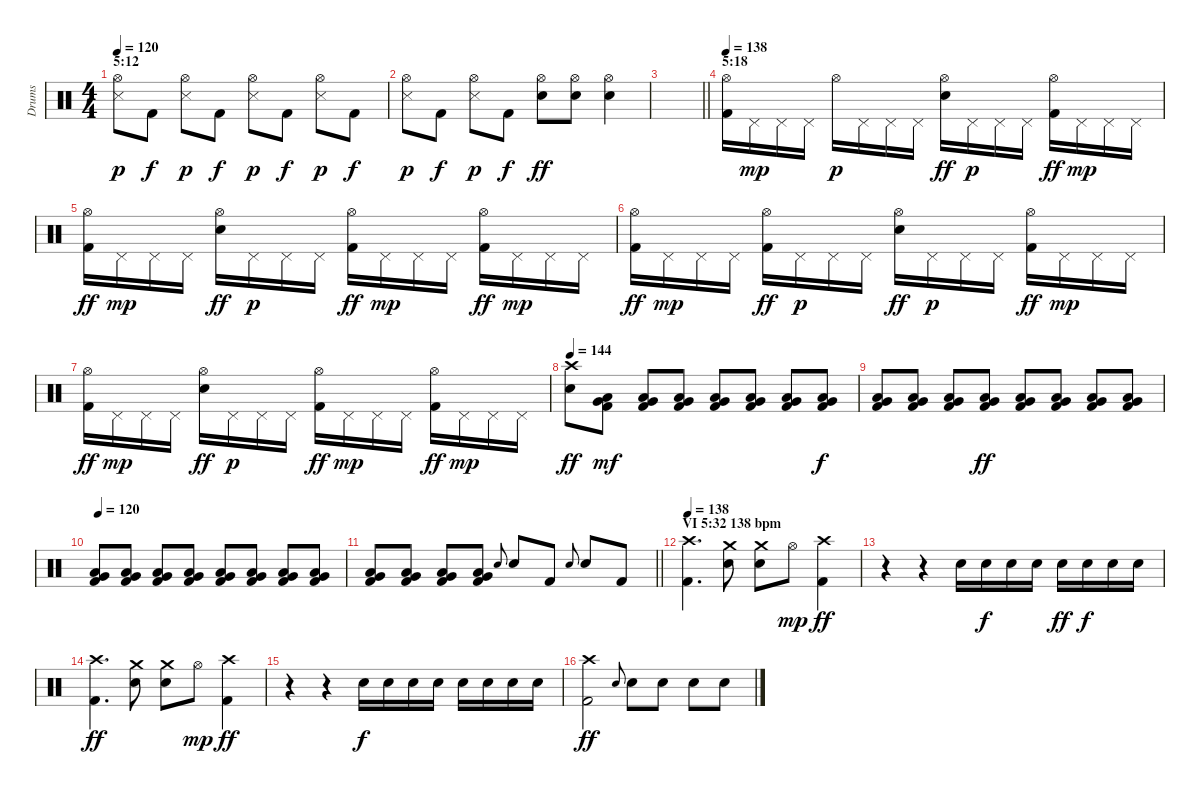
\track ("Drums" "Drums") {instrument percussion}
\staff {score}
\articulation defaults
\ts (4 4)
\section ("" "5:12")
\tempo 120
\clef neutral
\ks c
("Hi-Hat (open)" "Snare (side stick) 3").8{dy p} "Kick (hit) 2".8{dy f} ("Hi-Hat (open)" "Snare (side stick) 3").8{dy p} "Kick (hit) 2".8{dy f} ("Hi-Hat (open)" "Snare (side stick) 3").8{dy p} "Kick (hit) 2".8{dy f} ("Hi-Hat (open)" "Snare (side stick) 3").8{dy p} "Kick (hit) 2".8{dy f} |
("Hi-Hat (open)" "Snare (side stick) 3").8{dy p} "Kick (hit) 2".8{dy f} ("Hi-Hat (open)" "Snare (side stick) 3").8{dy p} "Kick (hit) 2".8{dy f} ("Hi-Hat (open)" "Electric Snare (hit)").8{dy ff} ("Hi-Hat (open)" "Electric Snare (hit)").8 ("Hi-Hat (open)" "Electric Snare (hit)").4 |
\barLineRight lightlight
|
\section ("" "5:18")
\tempo 138
("Hi-Hat (open)" "Kick (hit) 2").16 "Pedal Hi-Hat (hit)".16{dy mp} "Pedal Hi-Hat (hit)".16 "Pedal Hi-Hat (hit)".16 "Hi-Hat (open)".16{dy p} "Pedal Hi-Hat (hit)".16 "Pedal Hi-Hat (hit)".16 "Pedal Hi-Hat (hit)".16 ("Hi-Hat (open)" "Electric Snare (hit)").16{dy ff} "Pedal Hi-Hat (hit)".16{dy p} "Pedal Hi-Hat (hit)".16 "Pedal Hi-Hat (hit)".16 ("Hi-Hat (open)" "Kick (hit) 2").16{dy ff} "Pedal Hi-Hat (hit)".16{dy mp} "Pedal Hi-Hat (hit)".16 "Pedal Hi-Hat (hit)".16 |
("Hi-Hat (open)" "Kick (hit) 2").16{dy ff} "Pedal Hi-Hat (hit)".16{dy mp} "Pedal Hi-Hat (hit)".16 "Pedal Hi-Hat (hit)".16 ("Hi-Hat (open)" "Electric Snare (hit)").16{dy ff} "Pedal Hi-Hat (hit)".16{dy p} "Pedal Hi-Hat (hit)".16 "Pedal Hi-Hat (hit)".16 ("Hi-Hat (open)" "Kick (hit) 2").16{dy ff} "Pedal Hi-Hat (hit)".16{dy mp} "Pedal Hi-Hat (hit)".16 "Pedal Hi-Hat (hit)".16 ("Hi-Hat (open)" "Kick (hit) 2").16{dy ff} "Pedal Hi-Hat (hit)".16{dy mp} "Pedal Hi-Hat (hit)".16 "Pedal Hi-Hat (hit)".16 |
("Hi-Hat (open)" "Kick (hit) 2").16{dy ff} "Pedal Hi-Hat (hit)".16{dy mp} "Pedal Hi-Hat (hit)".16 "Pedal Hi-Hat (hit)".16 ("Hi-Hat (open)" "Kick (hit) 2").16{dy ff} "Pedal Hi-Hat (hit)".16{dy p} "Pedal Hi-Hat (hit)".16 "Pedal Hi-Hat (hit)".16 ("Hi-Hat (open)" "Electric Snare (hit)").16{dy ff} "Pedal Hi-Hat (hit)".16{dy p} "Pedal Hi-Hat (hit)".16 "Pedal Hi-Hat (hit)".16 ("Hi-Hat (open)" "Kick (hit) 2").16{dy ff} "Pedal Hi-Hat (hit)".16{dy mp} "Pedal Hi-Hat (hit)".16 "Pedal Hi-Hat (hit)".16 |
("Hi-Hat (open)" "Kick (hit) 2").16{dy ff} "Pedal Hi-Hat (hit)".16{dy mp} "Pedal Hi-Hat (hit)".16 "Pedal Hi-Hat (hit)".16 ("Hi-Hat (open)" "Electric Snare (hit)").16{dy ff} "Pedal Hi-Hat (hit)".16{dy p} "Pedal Hi-Hat (hit)".16 "Pedal Hi-Hat (hit)".16 ("Hi-Hat (open)" "Kick (hit) 2").16{dy ff} "Pedal Hi-Hat (hit)".16{dy mp} "Pedal Hi-Hat (hit)".16 "Pedal Hi-Hat (hit)".16 ("Hi-Hat (open)" "Kick (hit) 2").16{dy ff} "Pedal Hi-Hat (hit)".16{dy mp} "Pedal Hi-Hat (hit)".16 "Pedal Hi-Hat (hit)".16 |
\tempo 144
("Crash high (hit)" "Electric Snare (hit)").8{dy ff} ("Low Floor Tom (hit)" "Very Low Tom (hit)" "Kick (hit) 2").8{dy mf} ("Low Floor Tom (hit)" "Very Low Tom (hit)" "Kick (hit) 2").8 ("Low Floor Tom (hit)" "Very Low Tom (hit)" "Kick (hit) 2").8 ("Low Floor Tom (hit)" "Very Low Tom (hit)" "Kick (hit) 2").8 ("Low Floor Tom (hit)" "Very Low Tom (hit)" "Kick (hit) 2").8 ("Low Floor Tom (hit)" "Very Low Tom (hit)" "Kick (hit) 2").8 ("Low Floor Tom (hit)" "Very Low Tom (hit)" "Kick (hit) 2").8{dy f} |
("Low Floor Tom (hit)" "Very Low Tom (hit)" "Kick (hit) 2").8 ("Low Floor Tom (hit)" "Very Low Tom (hit)" "Kick (hit) 2").8 ("Low Floor Tom (hit)" "Very Low Tom (hit)" "Kick (hit) 2").8 ("Low Floor Tom (hit)" "Very Low Tom (hit)" "Kick (hit) 2").8{dy ff} ("Low Floor Tom (hit)" "Very Low Tom (hit)" "Kick (hit) 2").8 ("Low Floor Tom (hit)" "Very Low Tom (hit)" "Kick (hit) 2").8 ("Low Floor Tom (hit)" "Very Low Tom (hit)" "Kick (hit) 2").8 ("Low Floor Tom (hit)" "Very Low Tom (hit)" "Kick (hit) 2").8 |
\tempo 120
("Low Floor Tom (hit)" "Very Low Tom (hit)" "Kick (hit) 2").8 ("Low Floor Tom (hit)" "Very Low Tom (hit)" "Kick (hit) 2").8 ("Low Floor Tom (hit)" "Very Low Tom (hit)" "Kick (hit) 2").8 ("Low Floor Tom (hit)" "Very Low Tom (hit)" "Kick (hit) 2").8 ("Low Floor Tom (hit)" "Very Low Tom (hit)" "Kick (hit) 2").8 ("Low Floor Tom (hit)" "Very Low Tom (hit)" "Kick (hit) 2").8 ("Low Floor Tom (hit)" "Very Low Tom (hit)" "Kick (hit) 2").8 ("Low Floor Tom (hit)" "Very Low Tom (hit)" "Kick (hit) 2").8 |
\barLineRight lightlight
("Low Floor Tom (hit)" "Very Low Tom (hit)" "Kick (hit) 2").8 ("Low Floor Tom (hit)" "Very Low Tom (hit)" "Kick (hit) 2").8 ("Low Floor Tom (hit)" "Very Low Tom (hit)" "Kick (hit) 2").8 ("Low Floor Tom (hit)" "Very Low Tom (hit)" "Kick (hit) 2").8 "Electric Snare (hit)".8{gr onbeat} "Electric Snare (hit)".8 "Kick (hit) 2".8 "Electric Snare (hit)".8{gr onbeat} "Electric Snare (hit)".8 "Kick (hit) 2".8 |
\section ("" "VI 5:32 138 bpm")
\tempo 138
("Crash high (hit)" "Kick (hit) 2").4{d} ("Crash medium (hit)" "Electric Snare (hit)").8 ("Crash medium (hit)" "Electric Snare (hit)").8 "Hi-Hat (open)".8{dy mp} ("Crash high (hit)" "Kick (hit) 2").4{dy ff} |
r.4 r.4 "Electric Snare (hit)".16 "Electric Snare (hit)".16{dy f} "Electric Snare (hit)".16 "Electric Snare (hit)".16 "Electric Snare (hit)".16{dy ff} "Electric Snare (hit)".16{dy f} "Electric Snare (hit)".16 "Electric Snare (hit)".16 |
("Crash high (hit)" "Kick (hit) 2").4{d dy ff} ("Crash medium (hit)" "Electric Snare (hit)").8 ("Crash medium (hit)" "Electric Snare (hit)").8 "Hi-Hat (open)".8{dy mp} ("Crash high (hit)" "Kick (hit) 2").4{dy ff} |
r.4 r.4 "Electric Snare (hit)".16{dy f} "Electric Snare (hit)".16 "Electric Snare (hit)".16 "Electric Snare (hit)".16 "Electric Snare (hit)".16 "Electric Snare (hit)".16 "Electric Snare (hit)".16 "Electric Snare (hit)".16 |
("Crash high (hit)" "Kick (hit) 2").2{dy ff} "Electric Snare (hit)".8{gr onbeat} "Electric Snare (hit)".8 "Electric Snare (hit)".8 "Electric Snare (hit)".8 "Electric Snare (hit)".8
